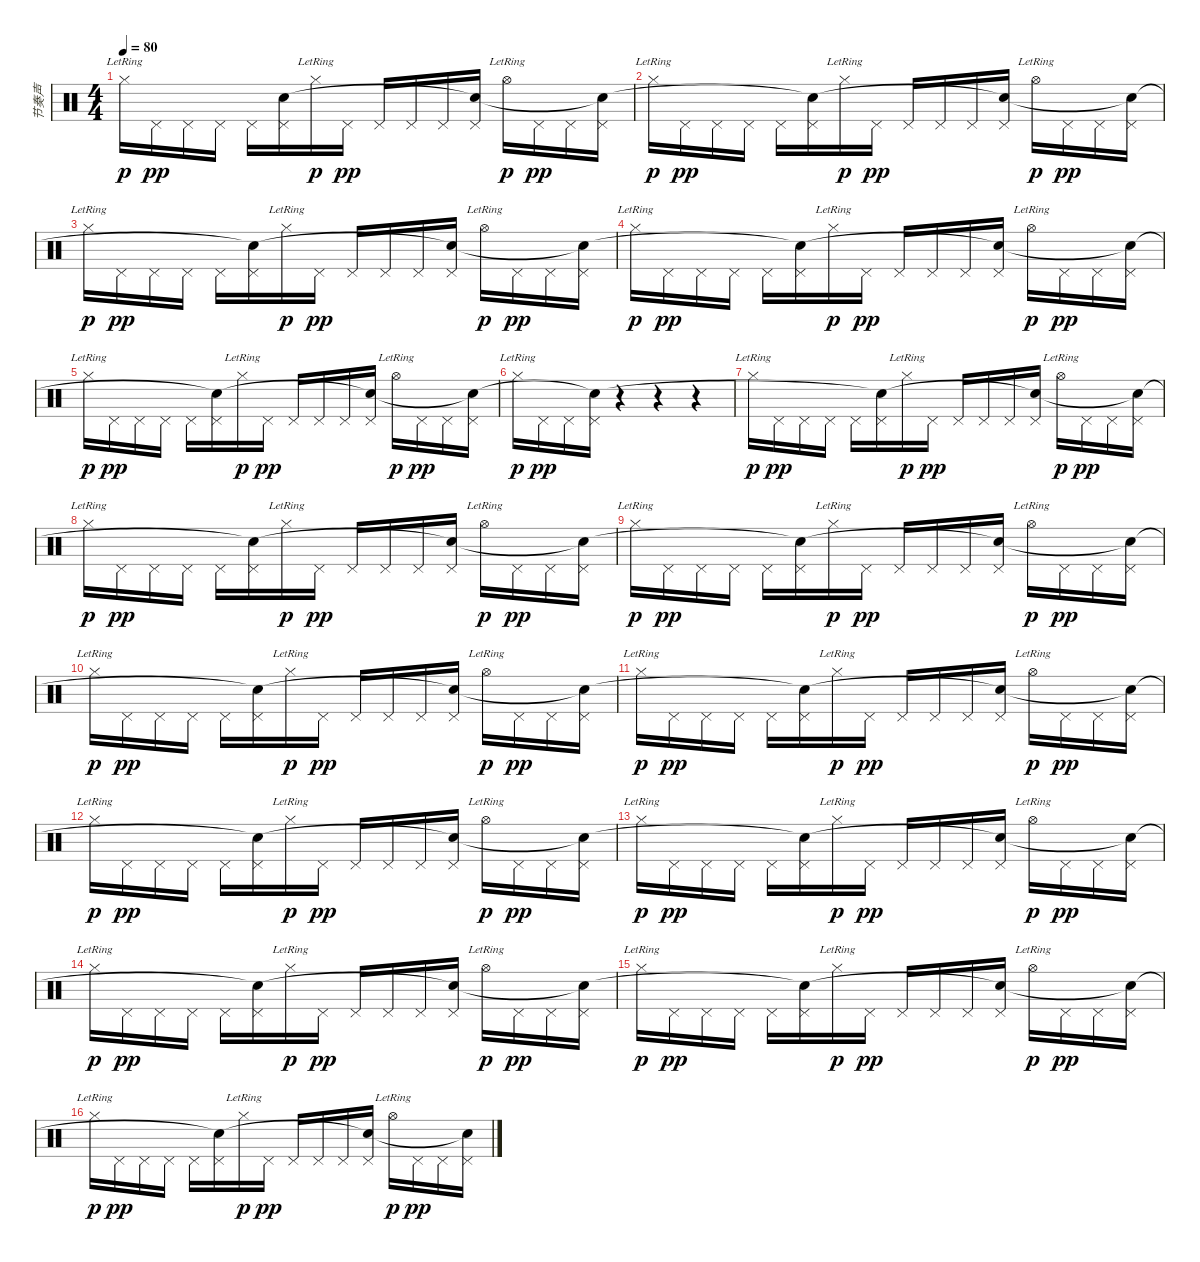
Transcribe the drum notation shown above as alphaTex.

\track ("节奏声" "节奏声") {instrument percussion}
\staff {score}
\articulation defaults
\ts (4 4)
\tempo 80
\clef neutral
\ks c "Hi-Hat (closed)"{lr}.16{dy p} "Pedal Hi-Hat (hit)".16{dy pp} "Pedal Hi-Hat (hit)".16 "Pedal Hi-Hat (hit)".16 "Pedal Hi-Hat (hit)".16
("Pedal Hi-Hat (hit)" "Snare (hit)"{t}).16 "Hi-Hat (closed)"{lr}.16{dy p} "Pedal Hi-Hat (hit)".16{dy pp} "Pedal Hi-Hat (hit)".16 "Pedal Hi-Hat (hit)".16 "Pedal Hi-Hat (hit)".16 ("Pedal Hi-Hat (hit)" "Snare (hit)"{t}).16 "Hi-Hat (open)"{lr}.16{dy p} "Pedal Hi-Hat (hit)".16{dy pp} "Pedal Hi-Hat (hit)".16 ("Pedal Hi-Hat (hit)" "Snare (hit)"{t}).16 |
"Hi-Hat (closed)"{lr}.16{dy p} "Pedal Hi-Hat (hit)".16{dy pp} "Pedal Hi-Hat (hit)".16 "Pedal Hi-Hat (hit)".16 "Pedal Hi-Hat (hit)".16 ("Pedal Hi-Hat (hit)" "Snare (hit)"{t}).16 "Hi-Hat (closed)"{lr}.16{dy p} "Pedal Hi-Hat (hit)".16{dy pp} "Pedal Hi-Hat (hit)".16 "Pedal Hi-Hat (hit)".16 "Pedal Hi-Hat (hit)".16 ("Pedal Hi-Hat (hit)" "Snare (hit)"{t}).16 "Hi-Hat (open)"{lr}.16{dy p} "Pedal Hi-Hat (hit)".16{dy pp} "Pedal Hi-Hat (hit)".16 ("Pedal Hi-Hat (hit)" "Snare (hit)"{t}).16 |
"Hi-Hat (closed)"{lr}.16{dy p} "Pedal Hi-Hat (hit)".16{dy pp} "Pedal Hi-Hat (hit)".16 "Pedal Hi-Hat (hit)".16 "Pedal Hi-Hat (hit)".16 ("Pedal Hi-Hat (hit)" "Snare (hit)"{t}).16 "Hi-Hat (closed)"{lr}.16{dy p} "Pedal Hi-Hat (hit)".16{dy pp} "Pedal Hi-Hat (hit)".16 "Pedal Hi-Hat (hit)".16 "Pedal Hi-Hat (hit)".16 ("Pedal Hi-Hat (hit)" "Snare (hit)"{t}).16 "Hi-Hat (open)"{lr}.16{dy p} "Pedal Hi-Hat (hit)".16{dy pp} "Pedal Hi-Hat (hit)".16 ("Pedal Hi-Hat (hit)" "Snare (hit)"{t}).16 |
"Hi-Hat (closed)"{lr}.16{dy p} "Pedal Hi-Hat (hit)".16{dy pp} "Pedal Hi-Hat (hit)".16 "Pedal Hi-Hat (hit)".16 "Pedal Hi-Hat (hit)".16 ("Pedal Hi-Hat (hit)" "Snare (hit)"{t}).16 "Hi-Hat (closed)"{lr}.16{dy p} "Pedal Hi-Hat (hit)".16{dy pp} "Pedal Hi-Hat (hit)".16 "Pedal Hi-Hat (hit)".16 "Pedal Hi-Hat (hit)".16 ("Pedal Hi-Hat (hit)" "Snare (hit)"{t}).16 "Hi-Hat (open)"{lr}.16{dy p} "Pedal Hi-Hat (hit)".16{dy pp} "Pedal Hi-Hat (hit)".16 ("Pedal Hi-Hat (hit)" "Snare (hit)"{t}).16 |
"Hi-Hat (closed)"{lr}.16{dy p} "Pedal Hi-Hat (hit)".16{dy pp} "Pedal Hi-Hat (hit)".16 "Pedal Hi-Hat (hit)".16 "Pedal Hi-Hat (hit)".16 ("Pedal Hi-Hat (hit)" "Snare (hit)"{t}).16 "Hi-Hat (closed)"{lr}.16{dy p} "Pedal Hi-Hat (hit)".16{dy pp} "Pedal Hi-Hat (hit)".16 "Pedal Hi-Hat (hit)".16 "Pedal Hi-Hat (hit)".16 ("Pedal Hi-Hat (hit)" "Snare (hit)"{t}).16 "Hi-Hat (open)"{lr}.16{dy p} "Pedal Hi-Hat (hit)".16{dy pp} "Pedal Hi-Hat (hit)".16 ("Pedal Hi-Hat (hit)" "Snare (hit)"{t}).16 |
"Hi-Hat (closed)"{lr}.16{dy p} "Pedal Hi-Hat (hit)".16{dy pp} "Pedal Hi-Hat (hit)".16 ("Pedal Hi-Hat (hit)" "Snare (hit)"{t}).16 r.4 r.4 r.4 |
"Hi-Hat (closed)"{lr}.16{dy p} "Pedal Hi-Hat (hit)".16{dy pp} "Pedal Hi-Hat (hit)".16 "Pedal Hi-Hat (hit)".16 "Pedal Hi-Hat (hit)".16 ("Pedal Hi-Hat (hit)" "Snare (hit)"{t}).16 "Hi-Hat (closed)"{lr}.16{dy p} "Pedal Hi-Hat (hit)".16{dy pp} "Pedal Hi-Hat (hit)".16 "Pedal Hi-Hat (hit)".16 "Pedal Hi-Hat (hit)".16 ("Pedal Hi-Hat (hit)" "Snare (hit)"{t}).16 "Hi-Hat (open)"{lr}.16{dy p} "Pedal Hi-Hat (hit)".16{dy pp} "Pedal Hi-Hat (hit)".16 ("Pedal Hi-Hat (hit)" "Snare (hit)"{t}).16 |
"Hi-Hat (closed)"{lr}.16{dy p} "Pedal Hi-Hat (hit)".16{dy pp} "Pedal Hi-Hat (hit)".16 "Pedal Hi-Hat (hit)".16 "Pedal Hi-Hat (hit)".16 ("Pedal Hi-Hat (hit)" "Snare (hit)"{t}).16 "Hi-Hat (closed)"{lr}.16{dy p} "Pedal Hi-Hat (hit)".16{dy pp} "Pedal Hi-Hat (hit)".16 "Pedal Hi-Hat (hit)".16 "Pedal Hi-Hat (hit)".16 ("Pedal Hi-Hat (hit)" "Snare (hit)"{t}).16 "Hi-Hat (open)"{lr}.16{dy p} "Pedal Hi-Hat (hit)".16{dy pp} "Pedal Hi-Hat (hit)".16 ("Pedal Hi-Hat (hit)" "Snare (hit)"{t}).16 |
"Hi-Hat (closed)"{lr}.16{dy p} "Pedal Hi-Hat (hit)".16{dy pp} "Pedal Hi-Hat (hit)".16 "Pedal Hi-Hat (hit)".16 "Pedal Hi-Hat (hit)".16 ("Pedal Hi-Hat (hit)" "Snare (hit)"{t}).16 "Hi-Hat (closed)"{lr}.16{dy p} "Pedal Hi-Hat (hit)".16{dy pp} "Pedal Hi-Hat (hit)".16 "Pedal Hi-Hat (hit)".16 "Pedal Hi-Hat (hit)".16 ("Pedal Hi-Hat (hit)" "Snare (hit)"{t}).16 "Hi-Hat (open)"{lr}.16{dy p} "Pedal Hi-Hat (hit)".16{dy pp} "Pedal Hi-Hat (hit)".16 ("Pedal Hi-Hat (hit)" "Snare (hit)"{t}).16 |
"Hi-Hat (closed)"{lr}.16{dy p} "Pedal Hi-Hat (hit)".16{dy pp} "Pedal Hi-Hat (hit)".16 "Pedal Hi-Hat (hit)".16 "Pedal Hi-Hat (hit)".16 ("Pedal Hi-Hat (hit)" "Snare (hit)"{t}).16 "Hi-Hat (closed)"{lr}.16{dy p} "Pedal Hi-Hat (hit)".16{dy pp} "Pedal Hi-Hat (hit)".16 "Pedal Hi-Hat (hit)".16 "Pedal Hi-Hat (hit)".16 ("Pedal Hi-Hat (hit)" "Snare (hit)"{t}).16 "Hi-Hat (open)"{lr}.16{dy p} "Pedal Hi-Hat (hit)".16{dy pp} "Pedal Hi-Hat (hit)".16 ("Pedal Hi-Hat (hit)" "Snare (hit)"{t}).16 |
"Hi-Hat (closed)"{lr}.16{dy p} "Pedal Hi-Hat (hit)".16{dy pp} "Pedal Hi-Hat (hit)".16 "Pedal Hi-Hat (hit)".16 "Pedal Hi-Hat (hit)".16 ("Pedal Hi-Hat (hit)" "Snare (hit)"{t}).16 "Hi-Hat (closed)"{lr}.16{dy p} "Pedal Hi-Hat (hit)".16{dy pp} "Pedal Hi-Hat (hit)".16 "Pedal Hi-Hat (hit)".16 "Pedal Hi-Hat (hit)".16 ("Pedal Hi-Hat (hit)" "Snare (hit)"{t}).16 "Hi-Hat (open)"{lr}.16{dy p} "Pedal Hi-Hat (hit)".16{dy pp} "Pedal Hi-Hat (hit)".16 ("Pedal Hi-Hat (hit)" "Snare (hit)"{t}).16 |
"Hi-Hat (closed)"{lr}.16{dy p} "Pedal Hi-Hat (hit)".16{dy pp} "Pedal Hi-Hat (hit)".16 "Pedal Hi-Hat (hit)".16 "Pedal Hi-Hat (hit)".16 ("Pedal Hi-Hat (hit)" "Snare (hit)"{t}).16 "Hi-Hat (closed)"{lr}.16{dy p} "Pedal Hi-Hat (hit)".16{dy pp} "Pedal Hi-Hat (hit)".16 "Pedal Hi-Hat (hit)".16 "Pedal Hi-Hat (hit)".16 ("Pedal Hi-Hat (hit)" "Snare (hit)"{t}).16 "Hi-Hat (open)"{lr}.16{dy p} "Pedal Hi-Hat (hit)".16{dy pp} "Pedal Hi-Hat (hit)".16 ("Pedal Hi-Hat (hit)" "Snare (hit)"{t}).16 |
"Hi-Hat (closed)"{lr}.16{dy p} "Pedal Hi-Hat (hit)".16{dy pp} "Pedal Hi-Hat (hit)".16 "Pedal Hi-Hat (hit)".16 "Pedal Hi-Hat (hit)".16 ("Pedal Hi-Hat (hit)" "Snare (hit)"{t}).16 "Hi-Hat (closed)"{lr}.16{dy p} "Pedal Hi-Hat (hit)".16{dy pp} "Pedal Hi-Hat (hit)".16 "Pedal Hi-Hat (hit)".16 "Pedal Hi-Hat (hit)".16 ("Pedal Hi-Hat (hit)" "Snare (hit)"{t}).16 "Hi-Hat (open)"{lr}.16{dy p} "Pedal Hi-Hat (hit)".16{dy pp} "Pedal Hi-Hat (hit)".16 ("Pedal Hi-Hat (hit)" "Snare (hit)"{t}).16 |
"Hi-Hat (closed)"{lr}.16{dy p} "Pedal Hi-Hat (hit)".16{dy pp} "Pedal Hi-Hat (hit)".16 "Pedal Hi-Hat (hit)".16 "Pedal Hi-Hat (hit)".16 ("Pedal Hi-Hat (hit)" "Snare (hit)"{t}).16 "Hi-Hat (closed)"{lr}.16{dy p} "Pedal Hi-Hat (hit)".16{dy pp} "Pedal Hi-Hat (hit)".16 "Pedal Hi-Hat (hit)".16 "Pedal Hi-Hat (hit)".16 ("Pedal Hi-Hat (hit)" "Snare (hit)"{t}).16 "Hi-Hat (open)"{lr}.16{dy p} "Pedal Hi-Hat (hit)".16{dy pp} "Pedal Hi-Hat (hit)".16 ("Pedal Hi-Hat (hit)" "Snare (hit)"{t}).16 |
"Hi-Hat (closed)"{lr}.16{dy p} "Pedal Hi-Hat (hit)".16{dy pp} "Pedal Hi-Hat (hit)".16 "Pedal Hi-Hat (hit)".16 "Pedal Hi-Hat (hit)".16 ("Pedal Hi-Hat (hit)" "Snare (hit)"{t}).16 "Hi-Hat (closed)"{lr}.16{dy p} "Pedal Hi-Hat (hit)".16{dy pp} "Pedal Hi-Hat (hit)".16 "Pedal Hi-Hat (hit)".16 "Pedal Hi-Hat (hit)".16 ("Pedal Hi-Hat (hit)" "Snare (hit)"{t}).16 "Hi-Hat (open)"{lr}.16{dy p} "Pedal Hi-Hat (hit)".16{dy pp} "Pedal Hi-Hat (hit)".16 ("Pedal Hi-Hat (hit)" "Snare (hit)"{t}).16 |
"Hi-Hat (closed)"{lr}.16{dy p} "Pedal Hi-Hat (hit)".16{dy pp} "Pedal Hi-Hat (hit)".16 "Pedal Hi-Hat (hit)".16 "Pedal Hi-Hat (hit)".16 ("Pedal Hi-Hat (hit)" "Snare (hit)"{t}).16 "Hi-Hat (closed)"{lr}.16{dy p} "Pedal Hi-Hat (hit)".16{dy pp} "Pedal Hi-Hat (hit)".16 "Pedal Hi-Hat (hit)".16 "Pedal Hi-Hat (hit)".16 ("Pedal Hi-Hat (hit)" "Snare (hit)"{t}).16 "Hi-Hat (open)"{lr}.16{dy p} "Pedal Hi-Hat (hit)".16{dy pp} "Pedal Hi-Hat (hit)".16 ("Pedal Hi-Hat (hit)" "Snare (hit)"{t}).16
